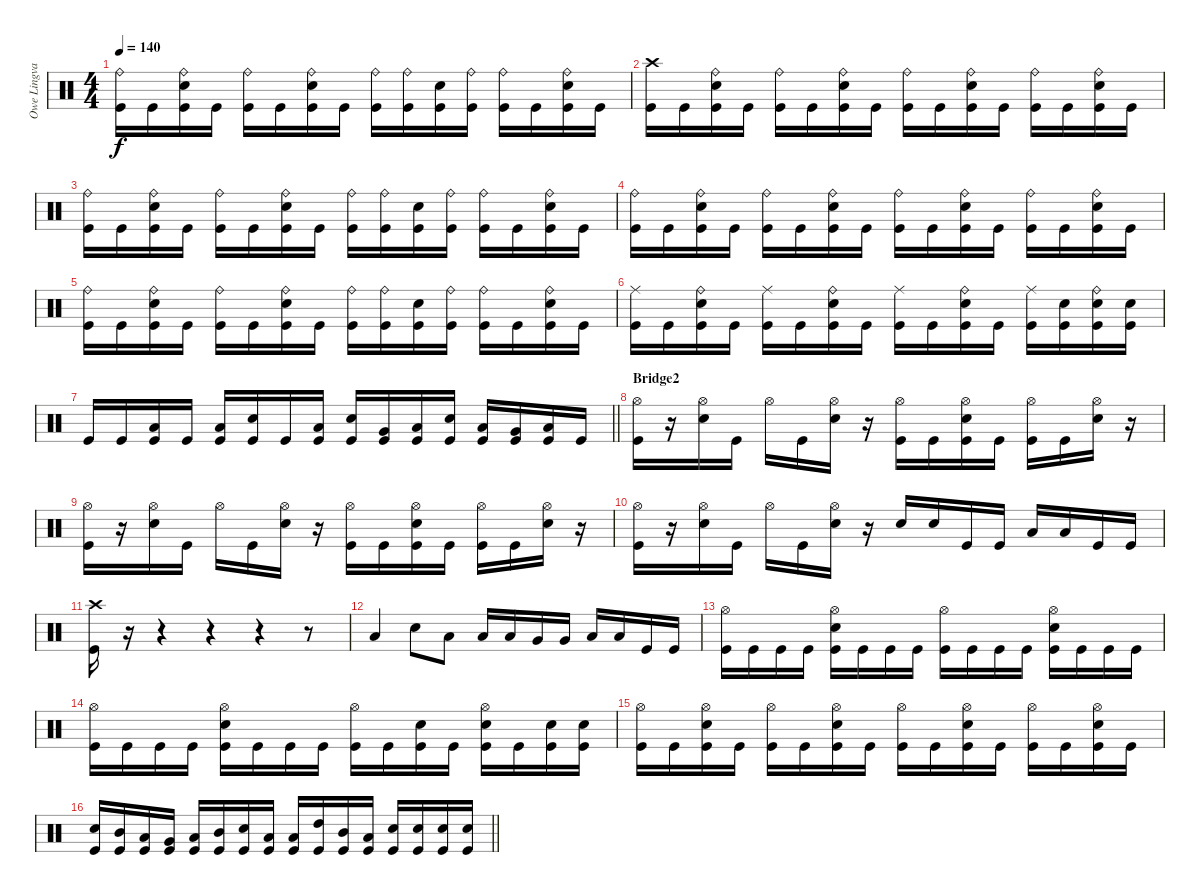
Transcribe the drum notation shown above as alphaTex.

\track ("Owe Lingvall" "Owe Lingva") {instrument percussion}
\staff {score}
\articulation defaults
\ts (4 4)
\tempo 140
\clef neutral
\ks c
("Kick (hit)" "Ride (bell)").16{dy f} "Kick (hit)".16 ("Kick (hit)" "Ride (bell)" "Snare (hit) 2").16 "Kick (hit)".16 ("Kick (hit)" "Ride (bell)").16 "Kick (hit)".16 ("Kick (hit)" "Ride (bell)" "Snare (hit) 2").16 "Kick (hit)".16 ("Kick (hit)" "Ride (bell)").16 ("Kick (hit)" "Ride (bell)").16 ("Kick (hit)" "Snare (hit) 2").16 ("Kick (hit)" "Ride (bell)").16 ("Kick (hit)" "Ride (bell)").16 "Kick (hit)".16 ("Kick (hit)" "Ride (bell)" "Snare (hit) 2").16 "Kick (hit)".16 |
("Kick (hit)" "Crash high (hit)").16 "Kick (hit)".16 ("Kick (hit)" "Ride (bell)" "Snare (hit) 2").16 "Kick (hit)".16 ("Kick (hit)" "Ride (bell)").16 "Kick (hit)".16 ("Kick (hit)" "Ride (bell)" "Snare (hit) 2").16 "Kick (hit)".16 ("Kick (hit)" "Ride (bell)").16 "Kick (hit)".16 ("Kick (hit)" "Ride (bell)" "Snare (hit) 2").16 "Kick (hit)".16 ("Kick (hit)" "Ride (bell)").16 "Kick (hit)".16 ("Kick (hit)" "Ride (bell)" "Snare (hit) 2").16 "Kick (hit)".16 |
("Kick (hit)" "Ride (bell)").16 "Kick (hit)".16 ("Kick (hit)" "Ride (bell)" "Snare (hit) 2").16 "Kick (hit)".16 ("Kick (hit)" "Ride (bell)").16 "Kick (hit)".16 ("Kick (hit)" "Ride (bell)" "Snare (hit) 2").16 "Kick (hit)".16 ("Kick (hit)" "Ride (bell)").16 ("Kick (hit)" "Ride (bell)").16 ("Kick (hit)" "Snare (hit) 2").16 ("Kick (hit)" "Ride (bell)").16 ("Kick (hit)" "Ride (bell)").16 "Kick (hit)".16 ("Kick (hit)" "Ride (bell)" "Snare (hit) 2").16 "Kick (hit)".16 |
("Kick (hit)" "Ride (bell)").16 "Kick (hit)".16 ("Kick (hit)" "Ride (bell)" "Snare (hit) 2").16 "Kick (hit)".16 ("Kick (hit)" "Ride (bell)").16 "Kick (hit)".16 ("Kick (hit)" "Ride (bell)" "Snare (hit) 2").16 "Kick (hit)".16 ("Kick (hit)" "Ride (bell)").16 "Kick (hit)".16 ("Kick (hit)" "Ride (bell)" "Snare (hit) 2").16 "Kick (hit)".16 ("Kick (hit)" "Ride (bell)").16 "Kick (hit)".16 ("Kick (hit)" "Ride (bell)" "Snare (hit) 2").16 "Kick (hit)".16 |
("Kick (hit)" "Ride (bell)").16 "Kick (hit)".16 ("Kick (hit)" "Ride (bell)" "Snare (hit) 2").16 "Kick (hit)".16 ("Kick (hit)" "Ride (bell)").16 "Kick (hit)".16 ("Kick (hit)" "Ride (bell)" "Snare (hit) 2").16 "Kick (hit)".16 ("Kick (hit)" "Ride (bell)").16 ("Kick (hit)" "Ride (bell)").16 ("Kick (hit)" "Snare (hit) 2").16 ("Kick (hit)" "Ride (bell)").16 ("Kick (hit)" "Ride (bell)").16 "Kick (hit)".16 ("Kick (hit)" "Ride (bell)" "Snare (hit) 2").16 "Kick (hit)".16 |
("Kick (hit)" "Ride (middle)").16 "Kick (hit)".16 ("Kick (hit)" "Ride (bell)" "Snare (hit) 2").16 "Kick (hit)".16 ("Kick (hit)" "Ride (middle)").16 "Kick (hit)".16 ("Kick (hit)" "Ride (bell)" "Snare (hit) 2").16 "Kick (hit)".16 ("Kick (hit)" "Ride (middle)").16 "Kick (hit)".16 ("Kick (hit)" "Ride (bell)" "Snare (hit) 2").16 "Kick (hit)".16 ("Kick (hit)" "Ride (middle)").16 ("Kick (hit)" "Snare (hit) 2").16 ("Kick (hit)" "Ride (bell)" "Snare (hit) 2").16 ("Kick (hit)" "Snare (hit) 2").16 |
\barLineRight lightlight "Kick (hit)".16 "Kick (hit)".16
("Kick (hit)" "Low Tom (hit)").16 "Kick (hit)".16 ("Kick (hit)" "Low Floor Tom (hit)").16 ("Kick (hit)" "Snare (hit) 2").16 "Kick (hit)".16 ("Kick (hit)" "Low Floor Tom (hit)").16 ("Kick (hit)" "Snare (hit) 2").16 ("Kick (hit)" "Very Low Tom (hit)").16 ("Kick (hit)" "Low Floor Tom (hit)").16 ("Kick (hit)" "Snare (hit) 2").16 ("Kick (hit)" "Low Tom (hit)").16 ("Kick (hit)" "Very Low Tom (hit)").16 ("Kick (hit)" "Low Tom (hit)").16 "Kick (hit)".16 |
\section ("" "Bridge2")
("Hi-Hat (open)" "Kick (hit)").16 r.16 ("Hi-Hat (open)" "Snare (hit) 2").16 "Kick (hit)".16 "Hi-Hat (open)".16 "Kick (hit)".16 ("Hi-Hat (open)" "Snare (hit) 2").16 r.16 ("Hi-Hat (open)" "Kick (hit)").16 "Kick (hit)".16 ("Hi-Hat (open)" "Snare (hit) 2" "Kick (hit)").16 "Kick (hit)".16 ("Kick (hit)" "Hi-Hat (open)").16 "Kick (hit)".16 ("Snare (hit) 2" "Hi-Hat (open)").16 r.16 |
("Hi-Hat (open)" "Kick (hit)").16 r.16 ("Hi-Hat (open)" "Snare (hit) 2").16 "Kick (hit)".16 "Hi-Hat (open)".16 "Kick (hit)".16 ("Hi-Hat (open)" "Snare (hit) 2").16 r.16 ("Hi-Hat (open)" "Kick (hit)").16 "Kick (hit)".16 ("Hi-Hat (open)" "Snare (hit) 2" "Kick (hit)").16 "Kick (hit)".16 ("Kick (hit)" "Hi-Hat (open)").16 "Kick (hit)".16 ("Snare (hit) 2" "Hi-Hat (open)").16 r.16 |
("Hi-Hat (open)" "Kick (hit)").16 r.16 ("Hi-Hat (open)" "Snare (hit) 2").16 "Kick (hit)".16 "Hi-Hat (open)".16 "Kick (hit)".16 ("Hi-Hat (open)" "Snare (hit) 2").16 r.16 "Snare (hit) 2".16 "Snare (hit) 2".16 "Kick (hit)".16 "Kick (hit)".16 "Low Tom (hit)".16 "Low Tom (hit)".16 "Kick (hit)".16 "Kick (hit)".16 |
("Crash high (hit)" "Kick (hit)").16 r.16 r.4 r.4 r.4 r.8 |
"Low Tom (hit)".4 "Snare (hit) 2".8 "Low Tom (hit)".8 "Low Tom (hit)".16 "Low Tom (hit)".16 "Very Low Tom (hit)".16 "Very Low Tom (hit)".16 "Low Floor Tom (hit)".16 "Low Floor Tom (hit)".16 "Kick (hit)".16 "Kick (hit)".16 |
("Hi-Hat (open)" "Kick (hit)").16 "Kick (hit)".16 "Kick (hit)".16 "Kick (hit)".16 ("Hi-Hat (open)" "Snare (hit) 2" "Kick (hit)").16 "Kick (hit)".16 "Kick (hit)".16 "Kick (hit)".16 ("Hi-Hat (open)" "Kick (hit)").16 "Kick (hit)".16 "Kick (hit)".16 "Kick (hit)".16 ("Hi-Hat (open)" "Snare (hit) 2" "Kick (hit)").16 "Kick (hit)".16 "Kick (hit)".16 "Kick (hit)".16 |
("Hi-Hat (open)" "Kick (hit)").16 "Kick (hit)".16 "Kick (hit)".16 "Kick (hit)".16 ("Hi-Hat (open)" "Snare (hit) 2" "Kick (hit)").16 "Kick (hit)".16 "Kick (hit)".16 "Kick (hit)".16 ("Hi-Hat (open)" "Kick (hit)").16 "Kick (hit)".16 ("Kick (hit)" "Snare (hit) 2").16 "Kick (hit)".16 ("Hi-Hat (open)" "Snare (hit) 2" "Kick (hit)").16 "Kick (hit)".16 ("Kick (hit)" "Snare (hit) 2").16 ("Kick (hit)" "Snare (hit) 2").16 |
("Kick (hit)" "Hi-Hat (open)").16 "Kick (hit)".16 ("Kick (hit)" "Hi-Hat (open)" "Snare (hit) 2").16 "Kick (hit)".16 ("Kick (hit)" "Hi-Hat (open)").16 "Kick (hit)".16 ("Kick (hit)" "Hi-Hat (open)" "Snare (hit) 2").16 "Kick (hit)".16 ("Kick (hit)" "Hi-Hat (open)").16 "Kick (hit)".16 ("Kick (hit)" "Hi-Hat (open)" "Snare (hit) 2").16 "Kick (hit)".16 ("Kick (hit)" "Hi-Hat (open)").16 "Kick (hit)".16 ("Kick (hit)" "Hi-Hat (open)" "Snare (hit) 2").16 "Kick (hit)".16 |
\barLineRight lightlight
("Kick (hit)" "Snare (hit) 2").16 ("Kick (hit)" "Mid Tom (hit)").16 ("Kick (hit)" "Low Tom (hit)").16 ("Kick (hit)" "Very Low Tom (hit)").16 ("Kick (hit)" "Low Tom (hit)").16 ("Kick (hit)" "Mid Tom (hit)").16 ("Kick (hit)" "Snare (hit) 2").16 ("Kick (hit)" "Low Tom (hit)").16 ("Kick (hit)" "Low Tom (hit)").16 ("Kick (hit)" "High Tom (hit)").16 ("Kick (hit)" "Mid Tom (hit)").16 ("Kick (hit)" "Low Tom (hit)").16 ("Kick (hit)" "Snare (hit) 2").16 ("Kick (hit)" "Snare (hit) 2").16 ("Kick (hit)" "Snare (hit) 2").16 ("Kick (hit)" "Snare (hit) 2").16
